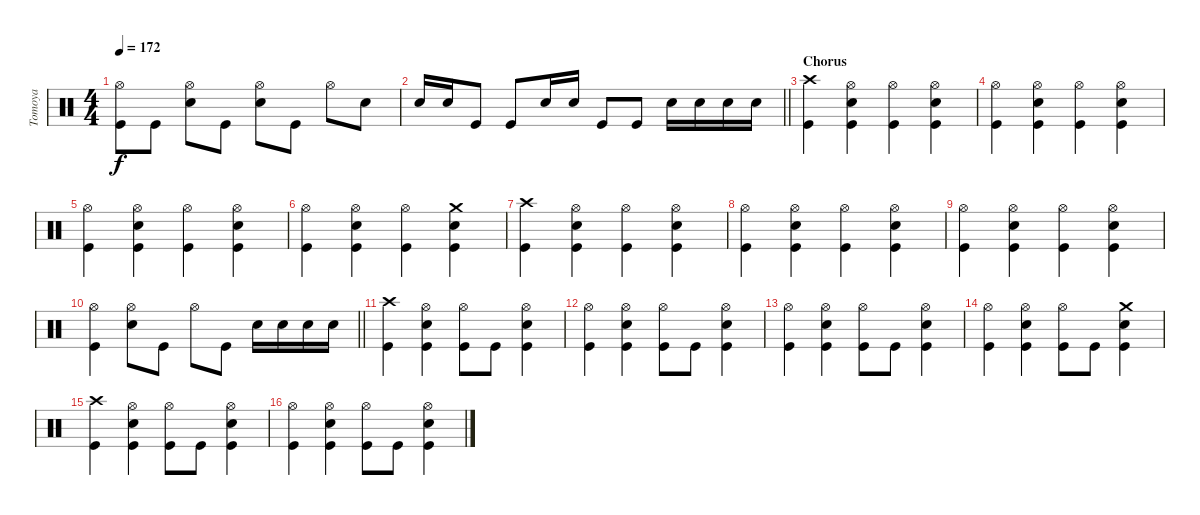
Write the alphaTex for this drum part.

\track ("Tomoya" "Tomoya") {instrument percussion}
\staff {score}
\articulation defaults
\ts (4 4)
\tempo 172
\clef neutral
\ks c
("Hi-Hat (open)" "Kick (hit)").8{dy f} "Kick (hit)".8 ("Hi-Hat (open)" "Snare (hit) 2").8 "Kick (hit)".8 ("Hi-Hat (open)" "Snare (hit) 2").8 "Kick (hit)".8 "Hi-Hat (open)".8 "Snare (hit) 2".8 |
\barLineRight lightlight "Snare (hit) 2".16 "Snare (hit) 2".16 "Kick (hit)".8 "Kick (hit)".8 "Snare (hit) 2".16 "Snare (hit) 2".16 "Kick (hit)".8 "Kick (hit)".8 "Snare (hit) 2".16 "Snare (hit) 2".16 "Snare (hit) 2".16 "Snare (hit) 2".16
|
\section ("" "Chorus")
("Crash high (hit)" "Kick (hit)").4 ("Snare (hit) 2" "Hi-Hat (open)" "Kick (hit)").4 ("Hi-Hat (open)" "Kick (hit)").4 ("Snare (hit) 2" "Hi-Hat (open)" "Kick (hit)").4 |
("Hi-Hat (open)" "Kick (hit)").4 ("Snare (hit) 2" "Hi-Hat (open)" "Kick (hit)").4 ("Hi-Hat (open)" "Kick (hit)").4 ("Snare (hit) 2" "Hi-Hat (open)" "Kick (hit)").4 |
("Hi-Hat (open)" "Kick (hit)").4 ("Snare (hit) 2" "Hi-Hat (open)" "Kick (hit)").4 ("Hi-Hat (open)" "Kick (hit)").4 ("Snare (hit) 2" "Hi-Hat (open)" "Kick (hit)").4 |
("Hi-Hat (open)" "Kick (hit)").4 ("Snare (hit) 2" "Hi-Hat (open)" "Kick (hit)").4 ("Hi-Hat (open)" "Kick (hit)").4 ("Snare (hit) 2" "Crash medium (hit)" "Kick (hit)").4 |
("Crash high (hit)" "Kick (hit)").4 ("Snare (hit) 2" "Hi-Hat (open)" "Kick (hit)").4 ("Hi-Hat (open)" "Kick (hit)").4 ("Snare (hit) 2" "Hi-Hat (open)" "Kick (hit)").4 |
("Hi-Hat (open)" "Kick (hit)").4 ("Snare (hit) 2" "Hi-Hat (open)" "Kick (hit)").4 ("Hi-Hat (open)" "Kick (hit)").4 ("Snare (hit) 2" "Hi-Hat (open)" "Kick (hit)").4 |
("Hi-Hat (open)" "Kick (hit)").4 ("Snare (hit) 2" "Hi-Hat (open)" "Kick (hit)").4 ("Hi-Hat (open)" "Kick (hit)").4 ("Snare (hit) 2" "Hi-Hat (open)" "Kick (hit)").4 |
\barLineRight lightlight
("Hi-Hat (open)" "Kick (hit)").4 ("Hi-Hat (open)" "Snare (hit) 2").8 "Kick (hit)".8 "Hi-Hat (open)".8 "Kick (hit)".8 "Snare (hit) 2".16 "Snare (hit) 2".16 "Snare (hit) 2".16 "Snare (hit) 2".16 |
("Crash high (hit)" "Kick (hit)").4 ("Snare (hit) 2" "Hi-Hat (open)" "Kick (hit)").4 ("Hi-Hat (open)" "Kick (hit)").8 "Kick (hit)".8 ("Snare (hit) 2" "Hi-Hat (open)" "Kick (hit)").4 |
("Hi-Hat (open)" "Kick (hit)").4 ("Snare (hit) 2" "Hi-Hat (open)" "Kick (hit)").4 ("Hi-Hat (open)" "Kick (hit)").8 "Kick (hit)".8 ("Snare (hit) 2" "Hi-Hat (open)" "Kick (hit)").4 |
("Hi-Hat (open)" "Kick (hit)").4 ("Snare (hit) 2" "Hi-Hat (open)" "Kick (hit)").4 ("Hi-Hat (open)" "Kick (hit)").8 "Kick (hit)".8 ("Snare (hit) 2" "Hi-Hat (open)" "Kick (hit)").4 |
("Hi-Hat (open)" "Kick (hit)").4 ("Snare (hit) 2" "Hi-Hat (open)" "Kick (hit)").4 ("Hi-Hat (open)" "Kick (hit)").8 "Kick (hit)".8 ("Snare (hit) 2" "Crash medium (hit)" "Kick (hit)").4 |
("Crash high (hit)" "Kick (hit)").4 ("Snare (hit) 2" "Hi-Hat (open)" "Kick (hit)").4 ("Hi-Hat (open)" "Kick (hit)").8 "Kick (hit)".8 ("Snare (hit) 2" "Hi-Hat (open)" "Kick (hit)").4 |
("Hi-Hat (open)" "Kick (hit)").4 ("Snare (hit) 2" "Hi-Hat (open)" "Kick (hit)").4 ("Hi-Hat (open)" "Kick (hit)").8 "Kick (hit)".8 ("Snare (hit) 2" "Hi-Hat (open)" "Kick (hit)").4
